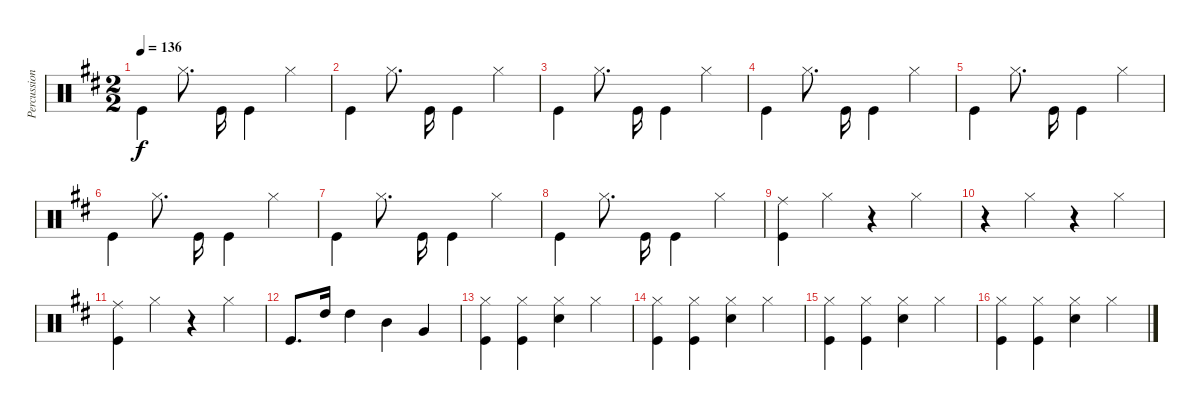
\track ("Percussion" "Percussion") {instrument percussion}
\staff {score}
\articulation defaults
\ts (2 2)
\tempo 136
\clef neutral
\ks d "Kick (hit)".4{dy f beam Down} "Hi-Hat (closed)".8{d beam split} "Kick (hit)".16{beam Down} "Kick (hit)".4{beam Down} "Hi-Hat (closed)".4
|
"Kick (hit)".4{beam Down} "Hi-Hat (closed)".8{d beam split} "Kick (hit)".16{beam Down} "Kick (hit)".4{beam Down} "Hi-Hat (closed)".4 |
"Kick (hit)".4{beam Down} "Hi-Hat (closed)".8{d beam split} "Kick (hit)".16{beam Down} "Kick (hit)".4{beam Down} "Hi-Hat (closed)".4 |
"Kick (hit)".4{beam Down} "Hi-Hat (closed)".8{d beam split} "Kick (hit)".16{beam Down} "Kick (hit)".4{beam Down} "Hi-Hat (closed)".4 |
"Kick (hit)".4{beam Down} "Hi-Hat (closed)".8{d beam split} "Kick (hit)".16{beam Down} "Kick (hit)".4{beam Down} "Hi-Hat (closed)".4 |
"Kick (hit)".4{beam Down} "Hi-Hat (closed)".8{d beam split} "Kick (hit)".16{beam Down} "Kick (hit)".4{beam Down} "Hi-Hat (closed)".4 |
"Kick (hit)".4{beam Down} "Hi-Hat (closed)".8{d beam split} "Kick (hit)".16{beam Down} "Kick (hit)".4{beam Down} "Hi-Hat (closed)".4 |
"Kick (hit)".4{beam Down} "Hi-Hat (closed)".8{d beam split} "Kick (hit)".16{beam Down} "Kick (hit)".4{beam Down} "Hi-Hat (closed)".4 |
("Ride (middle)" "Kick (hit)").4 "Hi-Hat (closed)".4 r.4 "Hi-Hat (closed)".4 |
r.4 "Hi-Hat (closed)".4 r.4 "Hi-Hat (closed)".4 |
("Ride (middle)" "Kick (hit)").4 "Hi-Hat (closed)".4 r.4 "Hi-Hat (closed)".4 |
"Kick (hit)".8{d} "High Tom (hit)".16 "High Tom (hit)".4 "Mid Tom (hit)".4 "Very Low Tom (hit)".4 |
("Hi-Hat (closed)" "Kick (hit)").4 ("Hi-Hat (closed)" "Kick (hit)").4 ("Snare (hit) 2" "Hi-Hat (closed)").4 "Hi-Hat (closed)".4 |
("Hi-Hat (closed)" "Kick (hit)").4 ("Hi-Hat (closed)" "Kick (hit)").4 ("Snare (hit) 2" "Hi-Hat (closed)").4 "Hi-Hat (closed)".4 |
("Hi-Hat (closed)" "Kick (hit)").4 ("Hi-Hat (closed)" "Kick (hit)").4 ("Snare (hit) 2" "Hi-Hat (closed)").4 "Hi-Hat (closed)".4 |
("Hi-Hat (closed)" "Kick (hit)").4 ("Hi-Hat (closed)" "Kick (hit)").4 ("Snare (hit) 2" "Hi-Hat (closed)").4 "Hi-Hat (closed)".4
